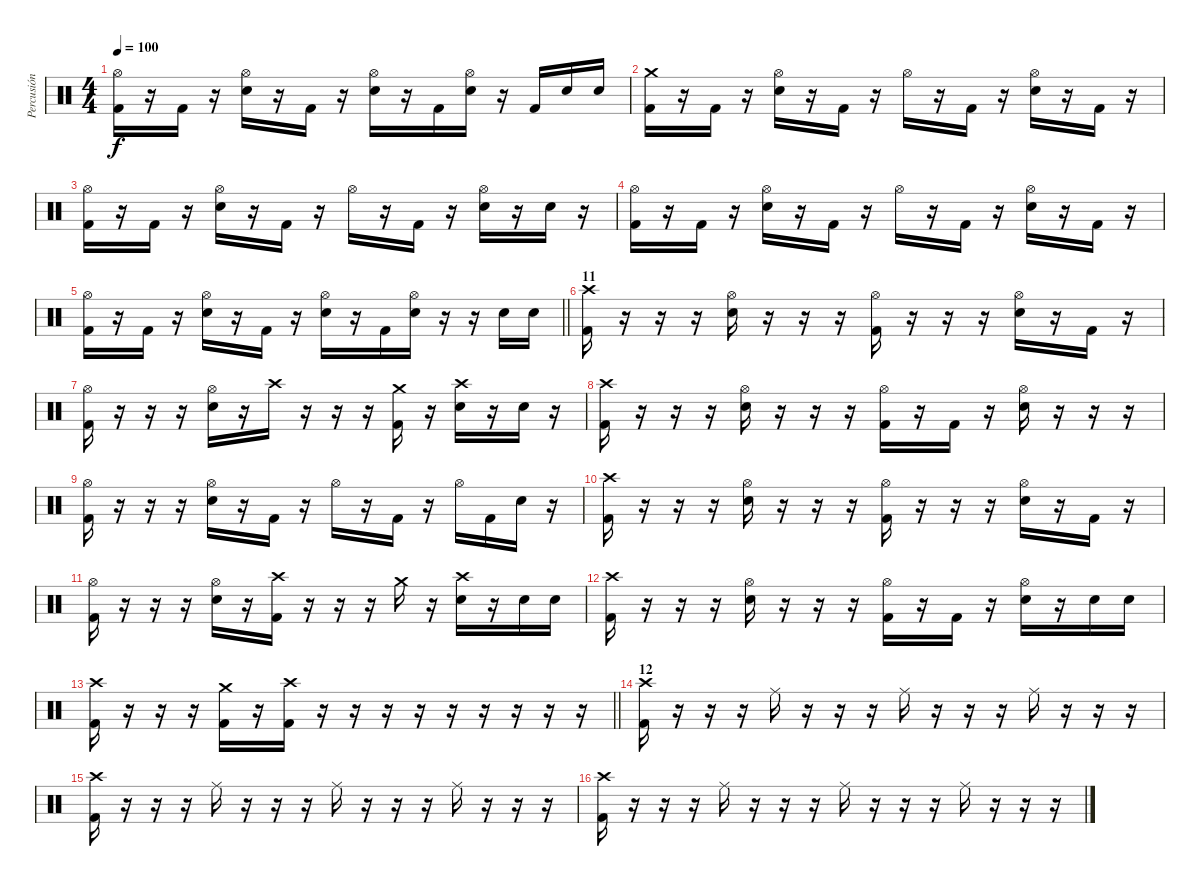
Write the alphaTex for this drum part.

\track ("Percusión" "Percusión") {instrument percussion}
\staff {score}
\articulation defaults
\ts (4 4)
\tempo 100
\clef neutral
\ks c
("Hi-Hat (open)" "Kick (hit) 2").16{dy f} r.16 "Kick (hit) 2".16 r.16 ("Hi-Hat (open)" "Electric Snare (hit)").16 r.16 "Kick (hit) 2".16 r.16 ("Hi-Hat (open)" "Electric Snare (hit)").16 r.16 "Kick (hit) 2".16 ("Hi-Hat (open)" "Electric Snare (hit)").16 r.16 "Kick (hit) 2".16 "Electric Snare (hit)".16 "Electric Snare (hit)".16 |
("Crash medium (hit)" "Kick (hit) 2").16 r.16 "Kick (hit) 2".16 r.16 ("Hi-Hat (open)" "Electric Snare (hit)").16 r.16 "Kick (hit) 2".16 r.16 "Hi-Hat (open)".16 r.16 "Kick (hit) 2".16 r.16 ("Hi-Hat (open)" "Electric Snare (hit)").16 r.16 "Kick (hit) 2".16 r.16 |
("Hi-Hat (open)" "Kick (hit) 2").16 r.16 "Kick (hit) 2".16 r.16 ("Hi-Hat (open)" "Electric Snare (hit)").16 r.16 "Kick (hit) 2".16 r.16 "Hi-Hat (open)".16 r.16 "Kick (hit) 2".16 r.16 ("Hi-Hat (open)" "Electric Snare (hit)").16 r.16 "Electric Snare (hit)".16 r.16 |
("Hi-Hat (open)" "Kick (hit) 2").16 r.16 "Kick (hit) 2".16 r.16 ("Hi-Hat (open)" "Electric Snare (hit)").16 r.16 "Kick (hit) 2".16 r.16 "Hi-Hat (open)".16 r.16 "Kick (hit) 2".16 r.16 ("Hi-Hat (open)" "Electric Snare (hit)").16 r.16 "Kick (hit) 2".16 r.16 |
\barLineRight lightlight
("Hi-Hat (open)" "Kick (hit) 2").16 r.16 "Kick (hit) 2".16 r.16 ("Hi-Hat (open)" "Electric Snare (hit)").16 r.16 "Kick (hit) 2".16 r.16 ("Hi-Hat (open)" "Electric Snare (hit)").16 r.16 "Kick (hit) 2".16 ("Hi-Hat (open)" "Electric Snare (hit)").16 r.16 r.16 "Electric Snare (hit)".16 "Electric Snare (hit)".16 |
\section ("" "11")
("Crash high (hit)" "Kick (hit) 2").16 r.16 r.16 r.16 ("Hi-Hat (open)" "Electric Snare (hit)").16 r.16 r.16 r.16 ("Hi-Hat (open)" "Kick (hit) 2").16 r.16 r.16 r.16 ("Hi-Hat (open)" "Electric Snare (hit)").16 r.16 "Kick (hit) 2".16 r.16 |
("Hi-Hat (open)" "Kick (hit) 2").16 r.16 r.16 r.16 ("Hi-Hat (open)" "Electric Snare (hit)").16 r.16 "Crash high (hit)".16 r.16 r.16 r.16 ("Crash medium (hit)" "Kick (hit) 2").16 r.16 ("Crash high (hit)" "Electric Snare (hit)").16 r.16 "Electric Snare (hit)".16 r.16 |
("Crash high (hit)" "Kick (hit) 2").16 r.16 r.16 r.16 ("Hi-Hat (open)" "Electric Snare (hit)").16 r.16 r.16 r.16 ("Hi-Hat (open)" "Kick (hit) 2").16 r.16 "Kick (hit) 2".16 r.16 ("Hi-Hat (open)" "Electric Snare (hit)").16 r.16 r.16 r.16 |
("Hi-Hat (open)" "Kick (hit) 2").16 r.16 r.16 r.16 ("Hi-Hat (open)" "Electric Snare (hit)").16 r.16 "Kick (hit) 2".16 r.16 "Hi-Hat (open)".16 r.16 "Kick (hit) 2".16 r.16 "Hi-Hat (open)".16 "Kick (hit) 2".16 "Electric Snare (hit)".16 r.16 |
("Crash high (hit)" "Kick (hit) 2").16 r.16 r.16 r.16 ("Hi-Hat (open)" "Electric Snare (hit)").16 r.16 r.16 r.16 ("Hi-Hat (open)" "Kick (hit) 2").16 r.16 r.16 r.16 ("Hi-Hat (open)" "Electric Snare (hit)").16 r.16 "Kick (hit) 2".16 r.16 |
("Hi-Hat (open)" "Kick (hit) 2").16 r.16 r.16 r.16 ("Hi-Hat (open)" "Electric Snare (hit)").16 r.16 ("Crash high (hit)" "Kick (hit) 2").16 r.16 r.16 r.16 "Crash medium (hit)".16 r.16 ("Crash high (hit)" "Electric Snare (hit)").16 r.16 "Electric Snare (hit)".16 "Electric Snare (hit)".16 |
("Crash high (hit)" "Kick (hit) 2").16 r.16 r.16 r.16 ("Hi-Hat (open)" "Electric Snare (hit)").16 r.16 r.16 r.16 ("Hi-Hat (open)" "Kick (hit) 2").16 r.16 "Kick (hit) 2".16 r.16 ("Hi-Hat (open)" "Electric Snare (hit)").16 r.16 "Electric Snare (hit)".16 "Electric Snare (hit)".16 |
\barLineRight lightlight
("Crash high (hit)" "Kick (hit) 2").16 r.16 r.16 r.16 ("Crash medium (hit)" "Kick (hit) 2").16 r.16 ("Crash high (hit)" "Kick (hit) 2").16 r.16 r.16 r.16 r.16 r.16 r.16 r.16 r.16 r.16 |
\section ("" "12")
("Crash high (hit)" "Kick (hit) 2").16 r.16 r.16 r.16 "Ride (middle)".16 r.16 r.16 r.16 "Ride (middle)".16 r.16 r.16 r.16 "Ride (middle)".16 r.16 r.16 r.16 |
("Crash high (hit)" "Kick (hit) 2").16 r.16 r.16 r.16 "Ride (middle)".16 r.16 r.16 r.16 "Ride (middle)".16 r.16 r.16 r.16 "Ride (middle)".16 r.16 r.16 r.16 |
("Crash high (hit)" "Kick (hit) 2").16 r.16 r.16 r.16 "Ride (middle)".16 r.16 r.16 r.16 "Ride (middle)".16 r.16 r.16 r.16 "Ride (middle)".16 r.16 r.16 r.16
